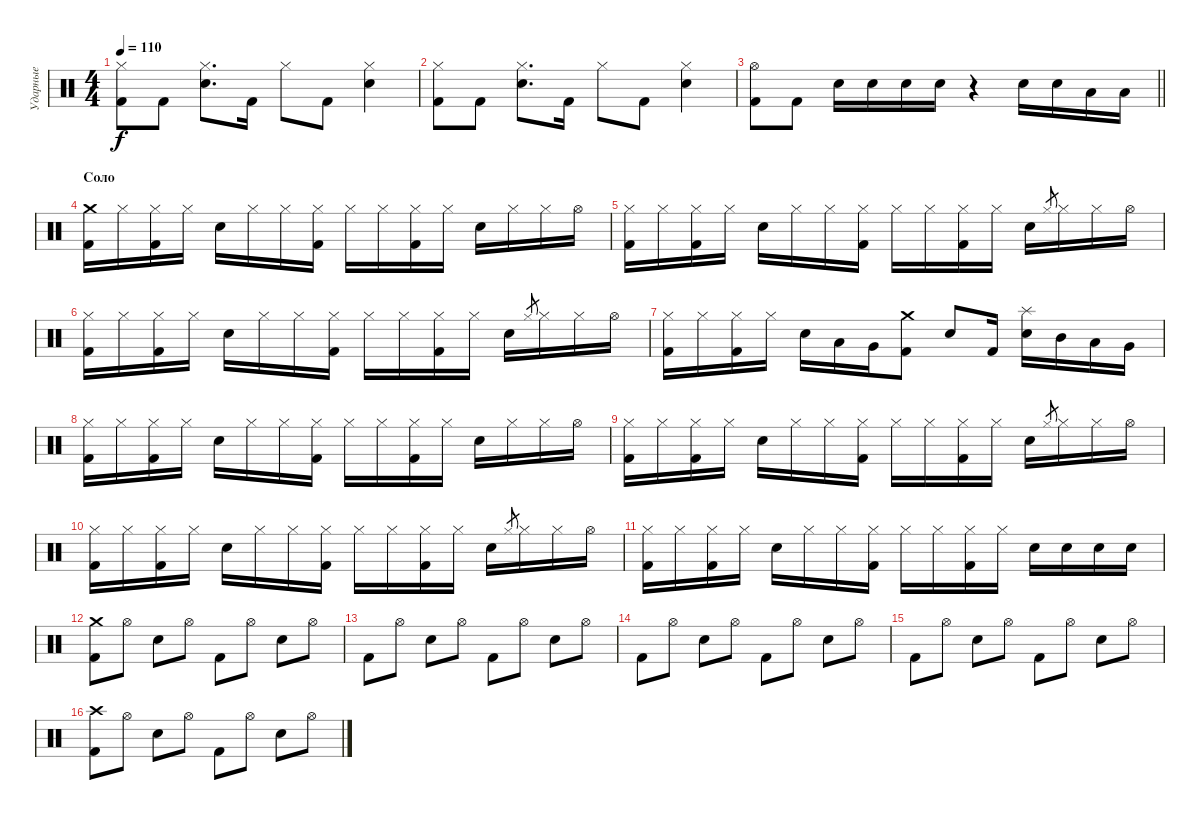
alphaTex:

\track ("Ударные" "Ударные") {instrument percussion}
\staff {score}
\articulation defaults
\ts (4 4)
\tempo 110
\clef neutral
\ks c
("Hi-Hat (closed)" "Kick (hit) 2").8{dy f} "Kick (hit) 2".8 ("Hi-Hat (closed)" "Snare (hit) 2").8{d} "Kick (hit) 2".16 "Hi-Hat (closed)".8 "Kick (hit) 2".8 ("Hi-Hat (closed)" "Snare (hit) 2").4 |
("Hi-Hat (closed)" "Kick (hit) 2").8 "Kick (hit) 2".8 ("Hi-Hat (closed)" "Snare (hit) 2").8{d} "Kick (hit) 2".16 "Hi-Hat (closed)".8 "Kick (hit) 2".8 ("Hi-Hat (closed)" "Snare (hit) 2").4 |
\barLineRight lightlight
("Hi-Hat (open)" "Kick (hit) 2").8 "Kick (hit) 2".8 "Snare (hit) 2".16 "Snare (hit) 2".16 "Snare (hit) 2".16 "Snare (hit) 2".16 r.4 "Snare (hit) 2".16 "Snare (hit) 2".16 "Low Tom (hit)".16 "Low Floor Tom (hit)".16 |
\section ("" "Соло")
("Crash medium (hit)" "Kick (hit) 2").16 "Hi-Hat (closed)".16 ("Hi-Hat (closed)" "Kick (hit) 2").16 "Hi-Hat (closed)".16 "Snare (hit) 2".16 "Hi-Hat (closed)".16 "Hi-Hat (closed)".16 ("Hi-Hat (closed)" "Kick (hit) 2").16 "Hi-Hat (closed)".16 "Hi-Hat (closed)".16 ("Hi-Hat (closed)" "Kick (hit) 2").16 "Hi-Hat (closed)".16 "Snare (hit) 2".16 "Hi-Hat (closed)".16 "Hi-Hat (closed)".16 "Hi-Hat (open)".16 |
("Hi-Hat (closed)" "Kick (hit) 2").16 "Hi-Hat (closed)".16 ("Hi-Hat (closed)" "Kick (hit) 2").16 "Hi-Hat (closed)".16 "Snare (hit) 2".16 "Hi-Hat (closed)".16 "Hi-Hat (closed)".16 ("Hi-Hat (closed)" "Kick (hit) 2").16 "Hi-Hat (closed)".16 "Hi-Hat (closed)".16 ("Hi-Hat (closed)" "Kick (hit) 2").16 "Hi-Hat (closed)".16 "Snare (hit) 2".16 "Hi-Hat (closed)".8{gr} "Hi-Hat (closed)".16 "Hi-Hat (closed)".16 "Hi-Hat (open)".16 |
("Hi-Hat (closed)" "Kick (hit) 2").16 "Hi-Hat (closed)".16 ("Hi-Hat (closed)" "Kick (hit) 2").16 "Hi-Hat (closed)".16 "Snare (hit) 2".16 "Hi-Hat (closed)".16 "Hi-Hat (closed)".16 ("Hi-Hat (closed)" "Kick (hit) 2").16 "Hi-Hat (closed)".16 "Hi-Hat (closed)".16 ("Hi-Hat (closed)" "Kick (hit) 2").16 "Hi-Hat (closed)".16 "Snare (hit) 2".16 "Hi-Hat (closed)".8{gr} "Hi-Hat (closed)".16 "Hi-Hat (closed)".16 "Hi-Hat (open)".16 |
("Hi-Hat (closed)" "Kick (hit) 2").16 "Hi-Hat (closed)".16 ("Hi-Hat (closed)" "Kick (hit) 2").16 "Hi-Hat (closed)".16 "Snare (hit) 2".16 "Low Tom (hit)".16 "Very Low Tom (hit)".16 ("Crash medium (hit)" "Kick (hit) 2").8 "Snare (hit) 2".8 "Kick (hit) 2".16 ("Splash (hit)" "Snare (hit) 2").16 "Mid Tom (hit)".16 "Low Tom (hit)".16 "Very Low Tom (hit)".16 |
("Hi-Hat (closed)" "Kick (hit) 2").16 "Hi-Hat (closed)".16 ("Hi-Hat (closed)" "Kick (hit) 2").16 "Hi-Hat (closed)".16 "Snare (hit) 2".16 "Hi-Hat (closed)".16 "Hi-Hat (closed)".16 ("Hi-Hat (closed)" "Kick (hit) 2").16 "Hi-Hat (closed)".16 "Hi-Hat (closed)".16 ("Hi-Hat (closed)" "Kick (hit) 2").16 "Hi-Hat (closed)".16 "Snare (hit) 2".16 "Hi-Hat (closed)".16 "Hi-Hat (closed)".16 "Hi-Hat (open)".16 |
("Hi-Hat (closed)" "Kick (hit) 2").16 "Hi-Hat (closed)".16 ("Hi-Hat (closed)" "Kick (hit) 2").16 "Hi-Hat (closed)".16 "Snare (hit) 2".16 "Hi-Hat (closed)".16 "Hi-Hat (closed)".16 ("Hi-Hat (closed)" "Kick (hit) 2").16 "Hi-Hat (closed)".16 "Hi-Hat (closed)".16 ("Hi-Hat (closed)" "Kick (hit) 2").16 "Hi-Hat (closed)".16 "Snare (hit) 2".16 "Hi-Hat (closed)".8{gr} "Hi-Hat (closed)".16 "Hi-Hat (closed)".16 "Hi-Hat (open)".16 |
("Hi-Hat (closed)" "Kick (hit) 2").16 "Hi-Hat (closed)".16 ("Hi-Hat (closed)" "Kick (hit) 2").16 "Hi-Hat (closed)".16 "Snare (hit) 2".16 "Hi-Hat (closed)".16 "Hi-Hat (closed)".16 ("Hi-Hat (closed)" "Kick (hit) 2").16 "Hi-Hat (closed)".16 "Hi-Hat (closed)".16 ("Hi-Hat (closed)" "Kick (hit) 2").16 "Hi-Hat (closed)".16 "Snare (hit) 2".16 "Hi-Hat (closed)".8{gr} "Hi-Hat (closed)".16 "Hi-Hat (closed)".16 "Hi-Hat (open)".16 |
("Hi-Hat (closed)" "Kick (hit) 2").16 "Hi-Hat (closed)".16 ("Hi-Hat (closed)" "Kick (hit) 2").16 "Hi-Hat (closed)".16 "Snare (hit) 2".16 "Hi-Hat (closed)".16 "Hi-Hat (closed)".16 ("Hi-Hat (closed)" "Kick (hit) 2").16 "Hi-Hat (closed)".16 "Hi-Hat (closed)".16 ("Hi-Hat (closed)" "Kick (hit) 2").16 "Hi-Hat (closed)".16 "Snare (hit) 2".16 "Snare (hit) 2".16 "Snare (hit) 2".16 "Snare (hit) 2".16 |
("Crash medium (hit)" "Kick (hit) 2").8 "Hi-Hat (open)".8 "Snare (hit) 2".8 "Hi-Hat (open)".8 "Kick (hit) 2".8 "Hi-Hat (open)".8 "Snare (hit) 2".8 "Hi-Hat (open)".8 |
"Kick (hit) 2".8 "Hi-Hat (open)".8 "Snare (hit) 2".8 "Hi-Hat (open)".8 "Kick (hit) 2".8 "Hi-Hat (open)".8 "Snare (hit) 2".8 "Hi-Hat (open)".8 |
"Kick (hit) 2".8 "Hi-Hat (open)".8 "Snare (hit) 2".8 "Hi-Hat (open)".8 "Kick (hit) 2".8 "Hi-Hat (open)".8 "Snare (hit) 2".8 "Hi-Hat (open)".8 |
"Kick (hit) 2".8 "Hi-Hat (open)".8 "Snare (hit) 2".8 "Hi-Hat (open)".8 "Kick (hit) 2".8 "Hi-Hat (open)".8 "Snare (hit) 2".8 "Hi-Hat (open)".8 |
("Crash high (hit)" "Kick (hit) 2").8 "Hi-Hat (open)".8 "Snare (hit) 2".8 "Hi-Hat (open)".8 "Kick (hit) 2".8 "Hi-Hat (open)".8 "Snare (hit) 2".8 "Hi-Hat (open)".8
